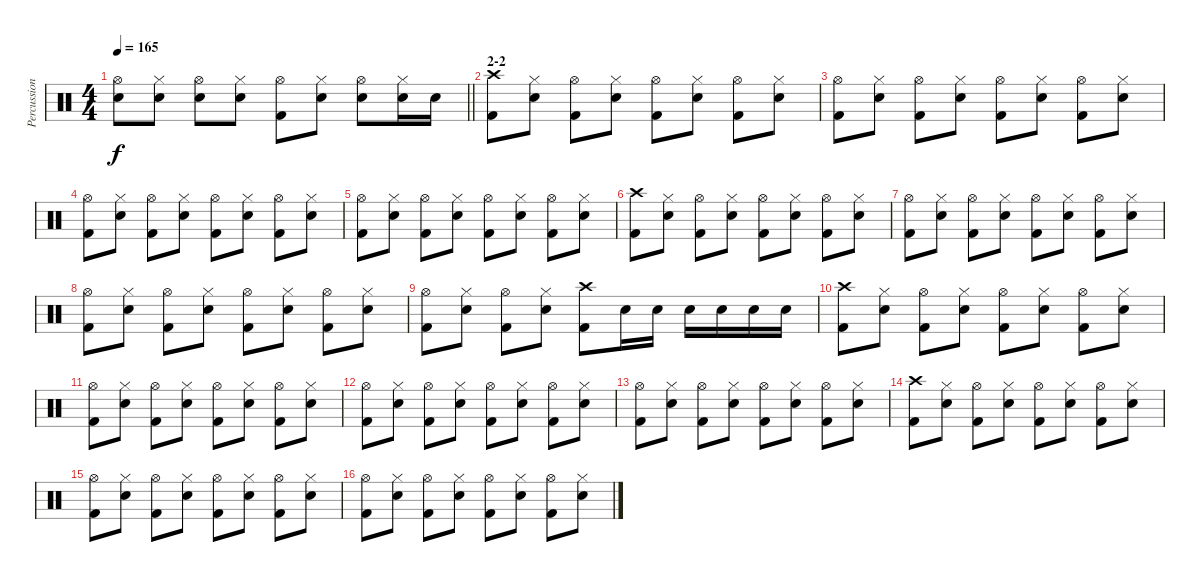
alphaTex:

\track ("Percussion" "Percussion") {instrument percussion}
\staff {score}
\articulation defaults
\ts (4 4)
\tempo 165
\clef neutral
\barLineRight lightlight
\ks c
("Hi-Hat (open)" "Snare (hit) 2").8{dy f} ("Hi-Hat (closed)" "Snare (hit) 2").8 ("Hi-Hat (open)" "Snare (hit) 2").8 ("Hi-Hat (closed)" "Snare (hit) 2").8 ("Hi-Hat (open)" "Kick (hit) 2").8 ("Hi-Hat (closed)" "Snare (hit) 2").8 ("Hi-Hat (open)" "Snare (hit) 2").8 ("Hi-Hat (closed)" "Snare (hit) 2").16 "Snare (hit) 2".16 |
\section ("" "2-2")
("Crash high (hit)" "Kick (hit) 2").8 ("Hi-Hat (closed)" "Snare (hit) 2").8 ("Hi-Hat (open)" "Kick (hit) 2").8 ("Hi-Hat (closed)" "Snare (hit) 2").8 ("Hi-Hat (open)" "Kick (hit) 2").8 ("Hi-Hat (closed)" "Snare (hit) 2").8 ("Hi-Hat (open)" "Kick (hit) 2").8 ("Hi-Hat (closed)" "Snare (hit) 2").8 |
("Hi-Hat (open)" "Kick (hit) 2").8 ("Hi-Hat (closed)" "Snare (hit) 2").8 ("Hi-Hat (open)" "Kick (hit) 2").8 ("Hi-Hat (closed)" "Snare (hit) 2").8 ("Hi-Hat (open)" "Kick (hit) 2").8 ("Hi-Hat (closed)" "Snare (hit) 2").8 ("Hi-Hat (open)" "Kick (hit) 2").8 ("Hi-Hat (closed)" "Snare (hit) 2").8 |
("Hi-Hat (open)" "Kick (hit) 2").8 ("Hi-Hat (closed)" "Snare (hit) 2").8 ("Hi-Hat (open)" "Kick (hit) 2").8 ("Hi-Hat (closed)" "Snare (hit) 2").8 ("Hi-Hat (open)" "Kick (hit) 2").8 ("Hi-Hat (closed)" "Snare (hit) 2").8 ("Hi-Hat (open)" "Kick (hit) 2").8 ("Hi-Hat (closed)" "Snare (hit) 2").8 |
("Hi-Hat (open)" "Kick (hit) 2").8 ("Hi-Hat (closed)" "Snare (hit) 2").8 ("Hi-Hat (open)" "Kick (hit) 2").8 ("Hi-Hat (closed)" "Snare (hit) 2").8 ("Hi-Hat (open)" "Kick (hit) 2").8 ("Hi-Hat (closed)" "Snare (hit) 2").8 ("Hi-Hat (open)" "Kick (hit) 2").8 ("Hi-Hat (closed)" "Snare (hit) 2").8 |
("Crash high (hit)" "Kick (hit) 2").8 ("Hi-Hat (closed)" "Snare (hit) 2").8 ("Hi-Hat (open)" "Kick (hit) 2").8 ("Hi-Hat (closed)" "Snare (hit) 2").8 ("Hi-Hat (open)" "Kick (hit) 2").8 ("Hi-Hat (closed)" "Snare (hit) 2").8 ("Hi-Hat (open)" "Kick (hit) 2").8 ("Hi-Hat (closed)" "Snare (hit) 2").8 |
("Hi-Hat (open)" "Kick (hit) 2").8 ("Hi-Hat (closed)" "Snare (hit) 2").8 ("Hi-Hat (open)" "Kick (hit) 2").8 ("Hi-Hat (closed)" "Snare (hit) 2").8 ("Hi-Hat (open)" "Kick (hit) 2").8 ("Hi-Hat (closed)" "Snare (hit) 2").8 ("Hi-Hat (open)" "Kick (hit) 2").8 ("Hi-Hat (closed)" "Snare (hit) 2").8 |
("Hi-Hat (open)" "Kick (hit) 2").8 ("Hi-Hat (closed)" "Snare (hit) 2").8 ("Hi-Hat (open)" "Kick (hit) 2").8 ("Hi-Hat (closed)" "Snare (hit) 2").8 ("Hi-Hat (open)" "Kick (hit) 2").8 ("Hi-Hat (closed)" "Snare (hit) 2").8 ("Hi-Hat (open)" "Kick (hit) 2").8 ("Hi-Hat (closed)" "Snare (hit) 2").8 |
("Hi-Hat (open)" "Kick (hit) 2").8 ("Hi-Hat (closed)" "Snare (hit) 2").8 ("Hi-Hat (open)" "Kick (hit) 2").8 ("Hi-Hat (closed)" "Snare (hit) 2").8 ("Crash high (hit)" "Kick (hit) 2").8 "Snare (hit) 2".16 "Snare (hit) 2".16 "Snare (hit) 2".16 "Snare (hit) 2".16 "Snare (hit) 2".16 "Snare (hit) 2".16 |
("Crash high (hit)" "Kick (hit) 2").8 ("Hi-Hat (closed)" "Snare (hit) 2").8 ("Hi-Hat (open)" "Kick (hit) 2").8 ("Hi-Hat (closed)" "Snare (hit) 2").8 ("Hi-Hat (open)" "Kick (hit) 2").8 ("Hi-Hat (closed)" "Snare (hit) 2").8 ("Hi-Hat (open)" "Kick (hit) 2").8 ("Hi-Hat (closed)" "Snare (hit) 2").8 |
("Hi-Hat (open)" "Kick (hit) 2").8 ("Hi-Hat (closed)" "Snare (hit) 2").8 ("Hi-Hat (open)" "Kick (hit) 2").8 ("Hi-Hat (closed)" "Snare (hit) 2").8 ("Hi-Hat (open)" "Kick (hit) 2").8 ("Hi-Hat (closed)" "Snare (hit) 2").8 ("Hi-Hat (open)" "Kick (hit) 2").8 ("Hi-Hat (closed)" "Snare (hit) 2").8 |
("Hi-Hat (open)" "Kick (hit) 2").8 ("Hi-Hat (closed)" "Snare (hit) 2").8 ("Hi-Hat (open)" "Kick (hit) 2").8 ("Hi-Hat (closed)" "Snare (hit) 2").8 ("Hi-Hat (open)" "Kick (hit) 2").8 ("Hi-Hat (closed)" "Snare (hit) 2").8 ("Hi-Hat (open)" "Kick (hit) 2").8 ("Hi-Hat (closed)" "Snare (hit) 2").8 |
("Hi-Hat (open)" "Kick (hit) 2").8 ("Hi-Hat (closed)" "Snare (hit) 2").8 ("Hi-Hat (open)" "Kick (hit) 2").8 ("Hi-Hat (closed)" "Snare (hit) 2").8 ("Hi-Hat (open)" "Kick (hit) 2").8 ("Hi-Hat (closed)" "Snare (hit) 2").8 ("Hi-Hat (open)" "Kick (hit) 2").8 ("Hi-Hat (closed)" "Snare (hit) 2").8 |
("Crash high (hit)" "Kick (hit) 2").8 ("Hi-Hat (closed)" "Snare (hit) 2").8 ("Hi-Hat (open)" "Kick (hit) 2").8 ("Hi-Hat (closed)" "Snare (hit) 2").8 ("Hi-Hat (open)" "Kick (hit) 2").8 ("Hi-Hat (closed)" "Snare (hit) 2").8 ("Hi-Hat (open)" "Kick (hit) 2").8 ("Hi-Hat (closed)" "Snare (hit) 2").8 |
("Hi-Hat (open)" "Kick (hit) 2").8 ("Hi-Hat (closed)" "Snare (hit) 2").8 ("Hi-Hat (open)" "Kick (hit) 2").8 ("Hi-Hat (closed)" "Snare (hit) 2").8 ("Hi-Hat (open)" "Kick (hit) 2").8 ("Hi-Hat (closed)" "Snare (hit) 2").8 ("Hi-Hat (open)" "Kick (hit) 2").8 ("Hi-Hat (closed)" "Snare (hit) 2").8 |
("Hi-Hat (open)" "Kick (hit) 2").8 ("Hi-Hat (closed)" "Snare (hit) 2").8 ("Hi-Hat (open)" "Kick (hit) 2").8 ("Hi-Hat (closed)" "Snare (hit) 2").8 ("Hi-Hat (open)" "Kick (hit) 2").8 ("Hi-Hat (closed)" "Snare (hit) 2").8 ("Hi-Hat (open)" "Kick (hit) 2").8 ("Hi-Hat (closed)" "Snare (hit) 2").8
